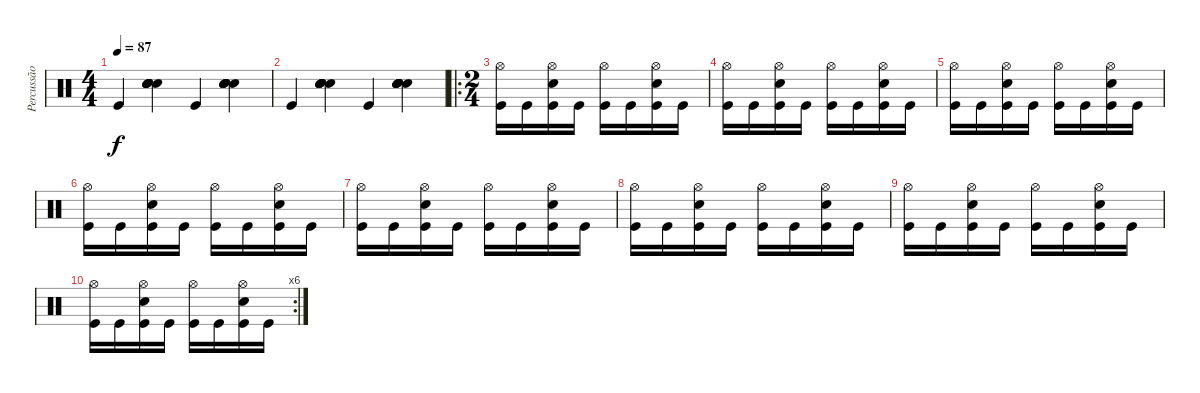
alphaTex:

\track ("Percussão" "Percussão") {instrument percussion}
\staff {score}
\articulation defaults
\ts (4 4)
\tempo 87
\clef neutral
\ks c "Kick (hit)".4{dy f}
("Snare (hit) 2" "Snare (hit) 2" "Snare (hit) 2" "Snare (hit) 2" "Snare (hit) 2" "Snare (hit) 2").4 "Kick (hit)".4 ("Snare (hit) 2" "Snare (hit) 2" "Snare (hit) 2" "Snare (hit) 2" "Snare (hit) 2" "Snare (hit) 2").4 |
"Kick (hit)".4 ("Snare (hit) 2" "Snare (hit) 2" "Snare (hit) 2" "Snare (hit) 2" "Snare (hit) 2" "Snare (hit) 2").4 "Kick (hit)".4 ("Snare (hit) 2" "Snare (hit) 2" "Snare (hit) 2" "Snare (hit) 2" "Snare (hit) 2" "Snare (hit) 2").4 |
\ro
\ts (2 4)
("Hi-Hat (open)" "Kick (hit)").16 "Kick (hit)".16 ("Hi-Hat (open)" "Snare (hit) 2" "Kick (hit)").16 "Kick (hit)".16 ("Hi-Hat (open)" "Kick (hit)").16 "Kick (hit)".16 ("Hi-Hat (open)" "Snare (hit) 2" "Kick (hit)").16 "Kick (hit)".16 |
("Hi-Hat (open)" "Kick (hit)").16 "Kick (hit)".16 ("Hi-Hat (open)" "Snare (hit) 2" "Kick (hit)").16 "Kick (hit)".16 ("Hi-Hat (open)" "Kick (hit)").16 "Kick (hit)".16 ("Hi-Hat (open)" "Snare (hit) 2" "Kick (hit)").16 "Kick (hit)".16 |
("Hi-Hat (open)" "Kick (hit)").16 "Kick (hit)".16 ("Hi-Hat (open)" "Snare (hit) 2" "Kick (hit)").16 "Kick (hit)".16 ("Hi-Hat (open)" "Kick (hit)").16 "Kick (hit)".16 ("Hi-Hat (open)" "Snare (hit) 2" "Kick (hit)").16 "Kick (hit)".16 |
("Hi-Hat (open)" "Kick (hit)").16 "Kick (hit)".16 ("Hi-Hat (open)" "Snare (hit) 2" "Kick (hit)").16 "Kick (hit)".16 ("Hi-Hat (open)" "Kick (hit)").16 "Kick (hit)".16 ("Hi-Hat (open)" "Snare (hit) 2" "Kick (hit)").16 "Kick (hit)".16 |
("Hi-Hat (open)" "Kick (hit)").16 "Kick (hit)".16 ("Hi-Hat (open)" "Snare (hit) 2" "Kick (hit)").16 "Kick (hit)".16 ("Hi-Hat (open)" "Kick (hit)").16 "Kick (hit)".16 ("Hi-Hat (open)" "Snare (hit) 2" "Kick (hit)").16 "Kick (hit)".16 |
("Hi-Hat (open)" "Kick (hit)").16 "Kick (hit)".16 ("Hi-Hat (open)" "Snare (hit) 2" "Kick (hit)").16 "Kick (hit)".16 ("Hi-Hat (open)" "Kick (hit)").16 "Kick (hit)".16 ("Hi-Hat (open)" "Snare (hit) 2" "Kick (hit)").16 "Kick (hit)".16 |
("Hi-Hat (open)" "Kick (hit)").16 "Kick (hit)".16 ("Hi-Hat (open)" "Snare (hit) 2" "Kick (hit)").16 "Kick (hit)".16 ("Hi-Hat (open)" "Kick (hit)").16 "Kick (hit)".16 ("Hi-Hat (open)" "Snare (hit) 2" "Kick (hit)").16 "Kick (hit)".16 |
\rc 6
("Hi-Hat (open)" "Kick (hit)").16 "Kick (hit)".16 ("Hi-Hat (open)" "Snare (hit) 2" "Kick (hit)").16 "Kick (hit)".16 ("Hi-Hat (open)" "Kick (hit)").16 "Kick (hit)".16 ("Hi-Hat (open)" "Snare (hit) 2" "Kick (hit)").16 "Kick (hit)".16
